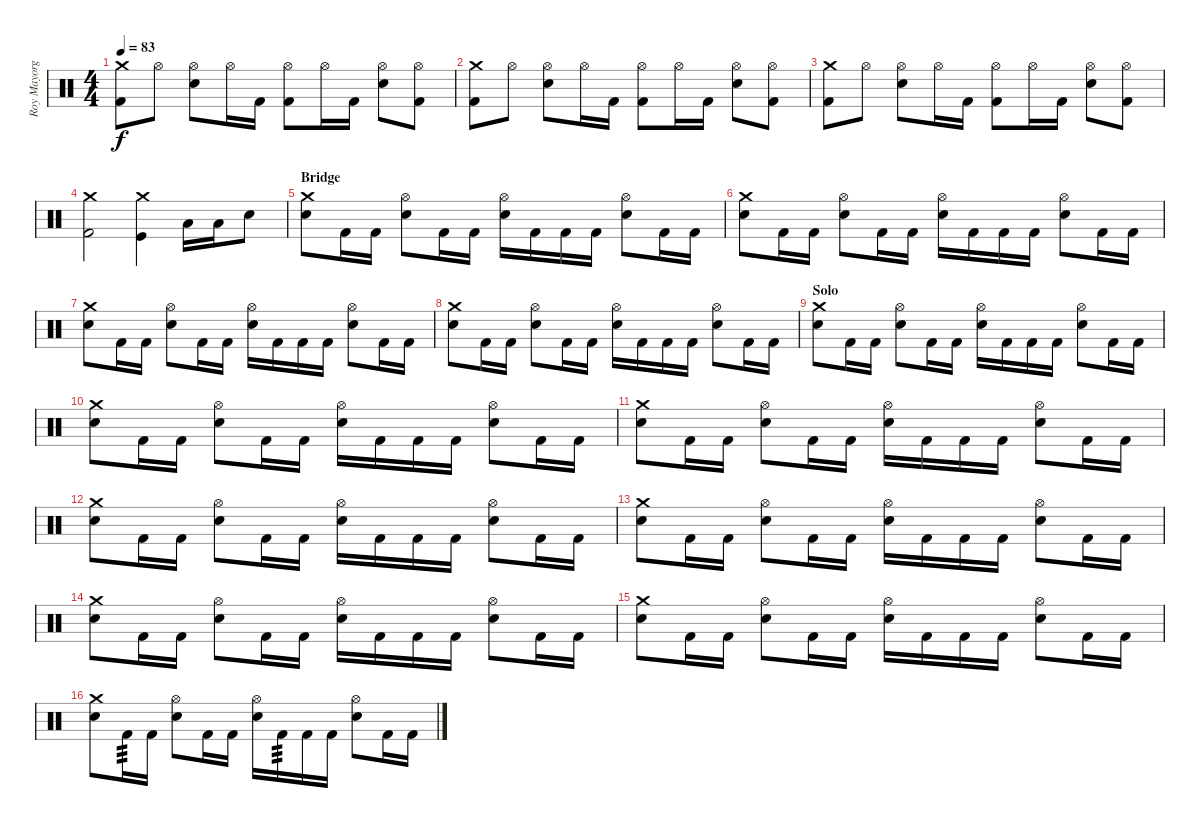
\track ("Roy Mayorga" "Roy Mayorg") {instrument percussion}
\staff {score}
\articulation defaults
\ts (4 4)
\tempo 83
\clef neutral
\ks c
("Crash medium (hit)" "Kick (hit) 2").8{dy f} "Hi-Hat (open)".8 ("Hi-Hat (open)" "Electric Snare (hit)").8 "Hi-Hat (open)".16 "Kick (hit) 2".16 ("Kick (hit) 2" "Hi-Hat (open)").8 "Hi-Hat (open)".16 "Kick (hit) 2".16 ("Electric Snare (hit)" "Hi-Hat (open)").8 ("Hi-Hat (open)" "Kick (hit) 2").8 |
("Crash medium (hit)" "Kick (hit) 2").8 "Hi-Hat (open)".8 ("Hi-Hat (open)" "Electric Snare (hit)").8 "Hi-Hat (open)".16 "Kick (hit) 2".16 ("Kick (hit) 2" "Hi-Hat (open)").8 "Hi-Hat (open)".16 "Kick (hit) 2".16 ("Electric Snare (hit)" "Hi-Hat (open)").8 ("Hi-Hat (open)" "Kick (hit) 2").8 |
("Crash medium (hit)" "Kick (hit) 2").8 "Hi-Hat (open)".8 ("Hi-Hat (open)" "Electric Snare (hit)").8 "Hi-Hat (open)".16 "Kick (hit) 2".16 ("Kick (hit) 2" "Hi-Hat (open)").8 "Hi-Hat (open)".16 "Kick (hit) 2".16 ("Electric Snare (hit)" "Hi-Hat (open)").8 ("Hi-Hat (open)" "Kick (hit) 2").8 |
("Crash medium (hit)" "Kick (hit) 2").2 ("Crash medium (hit)" "Kick (hit)").4 "Low Floor Tom (hit)".16 "Low Floor Tom (hit)".16 "Electric Snare (hit)".8 |
\section ("" "Bridge")
("Electric Snare (hit)" "Crash medium (hit)").8 "Kick (hit) 2".16 "Kick (hit) 2".16 ("Electric Snare (hit)" "Hi-Hat (open)").8 "Kick (hit) 2".16 "Kick (hit) 2".16 ("Electric Snare (hit)" "Hi-Hat (open)").16 "Kick (hit) 2".16 "Kick (hit) 2".16 "Kick (hit) 2".16 ("Electric Snare (hit)" "Hi-Hat (open)").8 "Kick (hit) 2".16 "Kick (hit) 2".16 |
("Electric Snare (hit)" "Crash medium (hit)").8 "Kick (hit) 2".16 "Kick (hit) 2".16 ("Electric Snare (hit)" "Hi-Hat (open)").8 "Kick (hit) 2".16 "Kick (hit) 2".16 ("Electric Snare (hit)" "Hi-Hat (open)").16 "Kick (hit) 2".16 "Kick (hit) 2".16 "Kick (hit) 2".16 ("Electric Snare (hit)" "Hi-Hat (open)").8 "Kick (hit) 2".16 "Kick (hit) 2".16 |
("Electric Snare (hit)" "Crash medium (hit)").8 "Kick (hit) 2".16 "Kick (hit) 2".16 ("Electric Snare (hit)" "Hi-Hat (open)").8 "Kick (hit) 2".16 "Kick (hit) 2".16 ("Electric Snare (hit)" "Hi-Hat (open)").16 "Kick (hit) 2".16 "Kick (hit) 2".16 "Kick (hit) 2".16 ("Electric Snare (hit)" "Hi-Hat (open)").8 "Kick (hit) 2".16 "Kick (hit) 2".16 |
("Electric Snare (hit)" "Crash medium (hit)").8 "Kick (hit) 2".16 "Kick (hit) 2".16 ("Electric Snare (hit)" "Hi-Hat (open)").8 "Kick (hit) 2".16 "Kick (hit) 2".16 ("Electric Snare (hit)" "Hi-Hat (open)").16 "Kick (hit) 2".16 "Kick (hit) 2".16 "Kick (hit) 2".16 ("Electric Snare (hit)" "Hi-Hat (open)").8 "Kick (hit) 2".16 "Kick (hit) 2".16 |
\section ("" "Solo")
("Electric Snare (hit)" "Crash medium (hit)").8 "Kick (hit) 2".16 "Kick (hit) 2".16 ("Electric Snare (hit)" "Hi-Hat (open)").8 "Kick (hit) 2".16 "Kick (hit) 2".16 ("Electric Snare (hit)" "Hi-Hat (open)").16 "Kick (hit) 2".16 "Kick (hit) 2".16 "Kick (hit) 2".16 ("Electric Snare (hit)" "Hi-Hat (open)").8 "Kick (hit) 2".16 "Kick (hit) 2".16 |
("Electric Snare (hit)" "Crash medium (hit)").8 "Kick (hit) 2".16 "Kick (hit) 2".16 ("Electric Snare (hit)" "Hi-Hat (open)").8 "Kick (hit) 2".16 "Kick (hit) 2".16 ("Electric Snare (hit)" "Hi-Hat (open)").16 "Kick (hit) 2".16 "Kick (hit) 2".16 "Kick (hit) 2".16 ("Electric Snare (hit)" "Hi-Hat (open)").8 "Kick (hit) 2".16 "Kick (hit) 2".16 |
("Electric Snare (hit)" "Crash medium (hit)").8 "Kick (hit) 2".16 "Kick (hit) 2".16 ("Electric Snare (hit)" "Hi-Hat (open)").8 "Kick (hit) 2".16 "Kick (hit) 2".16 ("Electric Snare (hit)" "Hi-Hat (open)").16 "Kick (hit) 2".16 "Kick (hit) 2".16 "Kick (hit) 2".16 ("Electric Snare (hit)" "Hi-Hat (open)").8 "Kick (hit) 2".16 "Kick (hit) 2".16 |
("Electric Snare (hit)" "Crash medium (hit)").8 "Kick (hit) 2".16 "Kick (hit) 2".16 ("Electric Snare (hit)" "Hi-Hat (open)").8 "Kick (hit) 2".16 "Kick (hit) 2".16 ("Electric Snare (hit)" "Hi-Hat (open)").16 "Kick (hit) 2".16 "Kick (hit) 2".16 "Kick (hit) 2".16 ("Electric Snare (hit)" "Hi-Hat (open)").8 "Kick (hit) 2".16 "Kick (hit) 2".16 |
("Electric Snare (hit)" "Crash medium (hit)").8 "Kick (hit) 2".16 "Kick (hit) 2".16 ("Electric Snare (hit)" "Hi-Hat (open)").8 "Kick (hit) 2".16 "Kick (hit) 2".16 ("Electric Snare (hit)" "Hi-Hat (open)").16 "Kick (hit) 2".16 "Kick (hit) 2".16 "Kick (hit) 2".16 ("Electric Snare (hit)" "Hi-Hat (open)").8 "Kick (hit) 2".16 "Kick (hit) 2".16 |
("Electric Snare (hit)" "Crash medium (hit)").8 "Kick (hit) 2".16 "Kick (hit) 2".16 ("Electric Snare (hit)" "Hi-Hat (open)").8 "Kick (hit) 2".16 "Kick (hit) 2".16 ("Electric Snare (hit)" "Hi-Hat (open)").16 "Kick (hit) 2".16 "Kick (hit) 2".16 "Kick (hit) 2".16 ("Electric Snare (hit)" "Hi-Hat (open)").8 "Kick (hit) 2".16 "Kick (hit) 2".16 |
("Electric Snare (hit)" "Crash medium (hit)").8 "Kick (hit) 2".16 "Kick (hit) 2".16 ("Electric Snare (hit)" "Hi-Hat (open)").8 "Kick (hit) 2".16 "Kick (hit) 2".16 ("Electric Snare (hit)" "Hi-Hat (open)").16 "Kick (hit) 2".16 "Kick (hit) 2".16 "Kick (hit) 2".16 ("Electric Snare (hit)" "Hi-Hat (open)").8 "Kick (hit) 2".16 "Kick (hit) 2".16 |
("Electric Snare (hit)" "Crash medium (hit)").8 "Kick (hit) 2".16{tp 3} "Kick (hit) 2".16 ("Electric Snare (hit)" "Hi-Hat (open)").8 "Kick (hit) 2".16 "Kick (hit) 2".16 ("Electric Snare (hit)" "Hi-Hat (open)").16 "Kick (hit) 2".16{tp 3} "Kick (hit) 2".16 "Kick (hit) 2".16 ("Electric Snare (hit)" "Hi-Hat (open)").8 "Kick (hit) 2".16 "Kick (hit) 2".16
